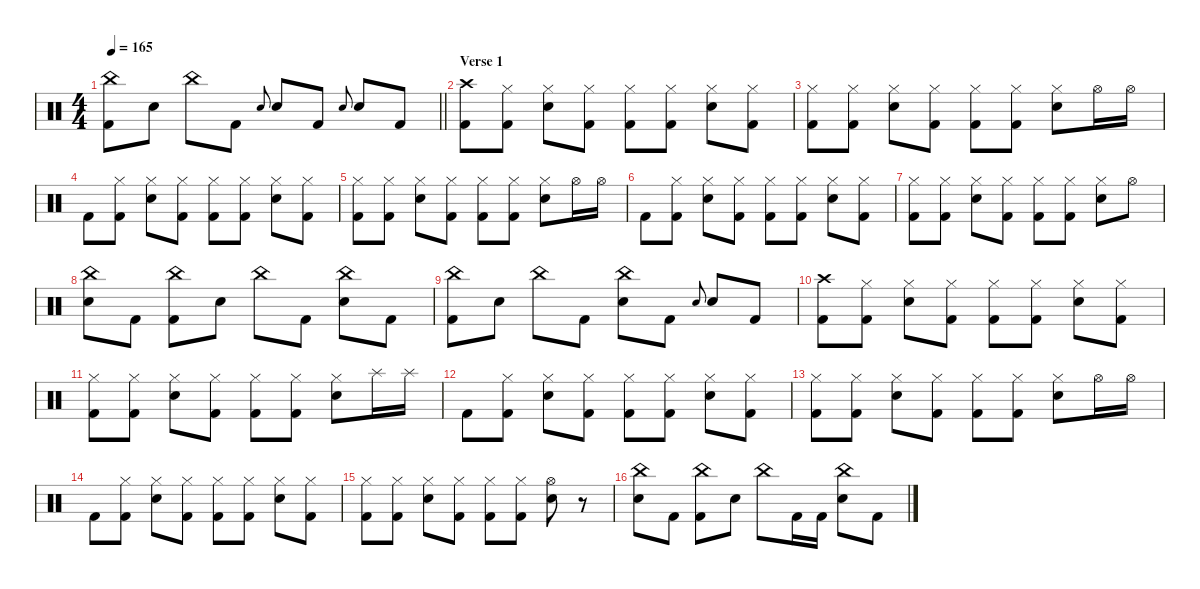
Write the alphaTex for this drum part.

\defaultSystemsLayout 4
\hideDynamics
\bracketExtendMode nobrackets
\singleTrackTrackNamePolicy hidden
\multiTrackTrackNamePolicy hidden
\firstSystemTrackNameMode fullname
\firstSystemTrackNameOrientation horizontal
\otherSystemsTrackNameOrientation horizontal
\track ("Percussions" "drm.") {instrument percussion}
\staff {score}
\articulation defaults
\ts (4 4)
\tempo 165
\clef neutral
\barLineRight lightlight
\ks c
("China (hit)" "Kick (hit) 2").8{dy f beam Down} "Snare (hit) 2".8{beam Down} "China (hit)".8{beam Down} "Kick (hit) 2".8{beam Down} "Electric Snare (hit)".8{gr onbeat dy mf beam Up} "Snare (hit) 2".8{dy f beam Up} "Kick (hit) 2".8{beam Up} "Electric Snare (hit)".8{gr onbeat dy mf beam Up} "Snare (hit) 2".8{dy f beam Up} "Kick (hit) 2".8{beam Up} |
\section ("" "Verse 1")
("Crash high (hit)" "Kick (hit) 2").8{beam Down} ("Hi-Hat (closed)" "Kick (hit) 2").8{beam Down} ("Hi-Hat (closed)" "Snare (hit) 2").8{beam Down} ("Hi-Hat (closed)" "Kick (hit) 2").8{beam Down} ("Hi-Hat (closed)" "Kick (hit) 2").8{beam Down} ("Hi-Hat (closed)" "Kick (hit) 2").8{beam Down} ("Hi-Hat (closed)" "Snare (hit) 2").8{beam Down} ("Hi-Hat (closed)" "Kick (hit) 2").8{beam Down} |
("Hi-Hat (closed)" "Kick (hit) 2").8{beam Down} ("Hi-Hat (closed)" "Kick (hit) 2").8{beam Down} ("Hi-Hat (closed)" "Snare (hit) 2").8{beam Down} ("Hi-Hat (closed)" "Kick (hit) 2").8{beam Down} ("Hi-Hat (closed)" "Kick (hit) 2").8{beam Down} ("Hi-Hat (closed)" "Kick (hit) 2").8{beam Down} ("Hi-Hat (closed)" "Snare (hit) 2").8{beam Down} "Hi-Hat (open)".16{beam Down} "Hi-Hat (open)".16{beam Down} |
"Kick (hit) 2".8{beam Down} ("Hi-Hat (closed)" "Kick (hit) 2").8{beam Down} ("Hi-Hat (closed)" "Snare (hit) 2").8{beam Down} ("Hi-Hat (closed)" "Kick (hit) 2").8{beam Down} ("Hi-Hat (closed)" "Kick (hit) 2").8{beam Down} ("Hi-Hat (closed)" "Kick (hit) 2").8{beam Down} ("Hi-Hat (closed)" "Snare (hit) 2").8{beam Down} ("Hi-Hat (closed)" "Kick (hit) 2").8{beam Down} |
("Hi-Hat (closed)" "Kick (hit) 2").8{beam Down} ("Hi-Hat (closed)" "Kick (hit) 2").8{beam Down} ("Hi-Hat (closed)" "Snare (hit) 2").8{beam Down} ("Hi-Hat (closed)" "Kick (hit) 2").8{beam Down} ("Hi-Hat (closed)" "Kick (hit) 2").8{beam Down} ("Hi-Hat (closed)" "Kick (hit) 2").8{beam Down} ("Hi-Hat (closed)" "Snare (hit) 2").8{beam Down} "Hi-Hat (open)".16{beam Down} "Hi-Hat (open)".16{beam Down} |
"Kick (hit) 2".8{beam Down} ("Hi-Hat (closed)" "Kick (hit) 2").8{beam Down} ("Hi-Hat (closed)" "Snare (hit) 2").8{beam Down} ("Hi-Hat (closed)" "Kick (hit) 2").8{beam Down} ("Hi-Hat (closed)" "Kick (hit) 2").8{beam Down} ("Hi-Hat (closed)" "Kick (hit) 2").8{beam Down} ("Hi-Hat (closed)" "Snare (hit) 2").8{beam Down} ("Hi-Hat (closed)" "Kick (hit) 2").8{beam Down} |
("Hi-Hat (closed)" "Kick (hit) 2").8{beam Down} ("Hi-Hat (closed)" "Kick (hit) 2").8{beam Down} ("Hi-Hat (closed)" "Snare (hit) 2").8{beam Down} ("Hi-Hat (closed)" "Kick (hit) 2").8{beam Down} ("Hi-Hat (closed)" "Kick (hit) 2").8{beam Down} ("Hi-Hat (closed)" "Kick (hit) 2").8{beam Down} ("Hi-Hat (closed)" "Snare (hit) 2").8{beam Down} "Hi-Hat (open)".8{beam Down} |
("China (hit)" "Snare (hit) 2").8{beam Down} "Kick (hit) 2".8{beam Down} ("China (hit)" "Kick (hit) 2").8{beam Down} "Snare (hit) 2".8{beam Down} "China (hit)".8{beam Down} "Kick (hit) 2".8{beam Down} ("China (hit)" "Snare (hit) 2").8{beam Down} "Kick (hit) 2".8{beam Down} |
("China (hit)" "Kick (hit) 2").8{beam Down} "Snare (hit) 2".8{beam Down} "China (hit)".8{beam Down} "Kick (hit) 2".8{beam Down} ("China (hit)" "Snare (hit) 2").8{beam Down} "Kick (hit) 2".8{beam Down} "Electric Snare (hit)".8{gr onbeat dy mf beam Up} "Snare (hit) 2".8{dy f beam Up} "Kick (hit) 2".8{beam Up} |
("Crash high (hit)" "Kick (hit) 2").8{beam Down} ("Hi-Hat (closed)" "Kick (hit) 2").8{beam Down} ("Hi-Hat (closed)" "Snare (hit) 2").8{beam Down} ("Hi-Hat (closed)" "Kick (hit) 2").8{beam Down} ("Hi-Hat (closed)" "Kick (hit) 2").8{beam Down} ("Hi-Hat (closed)" "Kick (hit) 2").8{beam Down} ("Hi-Hat (closed)" "Snare (hit) 2").8{beam Down} ("Hi-Hat (closed)" "Kick (hit) 2").8{beam Down} |
("Hi-Hat (closed)" "Kick (hit) 2").8{beam Down} ("Hi-Hat (closed)" "Kick (hit) 2").8{beam Down} ("Hi-Hat (closed)" "Snare (hit) 2").8{beam Down} ("Hi-Hat (closed)" "Kick (hit) 2").8{beam Down} ("Hi-Hat (closed)" "Kick (hit) 2").8{beam Down} ("Hi-Hat (closed)" "Kick (hit) 2").8{beam Down} ("Hi-Hat (closed)" "Snare (hit) 2").8{beam Down} "Splash (hit)".16{beam Down} "Splash (hit)".16{beam Down} |
"Kick (hit) 2".8{beam Down} ("Hi-Hat (closed)" "Kick (hit) 2").8{beam Down} ("Hi-Hat (closed)" "Snare (hit) 2").8{beam Down} ("Hi-Hat (closed)" "Kick (hit) 2").8{beam Down} ("Hi-Hat (closed)" "Kick (hit) 2").8{beam Down} ("Hi-Hat (closed)" "Kick (hit) 2").8{beam Down} ("Hi-Hat (closed)" "Snare (hit) 2").8{beam Down} ("Hi-Hat (closed)" "Kick (hit) 2").8{beam Down} |
("Hi-Hat (closed)" "Kick (hit) 2").8{beam Down} ("Hi-Hat (closed)" "Kick (hit) 2").8{beam Down} ("Hi-Hat (closed)" "Snare (hit) 2").8{beam Down} ("Hi-Hat (closed)" "Kick (hit) 2").8{beam Down} ("Hi-Hat (closed)" "Kick (hit) 2").8{beam Down} ("Hi-Hat (closed)" "Kick (hit) 2").8{beam Down} ("Hi-Hat (closed)" "Snare (hit) 2").8{beam Down} "Hi-Hat (open)".16{beam Down} "Hi-Hat (open)".16{beam Down} |
"Kick (hit) 2".8{beam Down} ("Hi-Hat (closed)" "Kick (hit) 2").8{beam Down} ("Hi-Hat (closed)" "Snare (hit) 2").8{beam Down} ("Hi-Hat (closed)" "Kick (hit) 2").8{beam Down} ("Hi-Hat (closed)" "Kick (hit) 2").8{beam Down} ("Hi-Hat (closed)" "Kick (hit) 2").8{beam Down} ("Hi-Hat (closed)" "Snare (hit) 2").8{beam Down} ("Hi-Hat (closed)" "Kick (hit) 2").8{beam Down} |
("Hi-Hat (closed)" "Kick (hit) 2").8{beam Down} ("Hi-Hat (closed)" "Kick (hit) 2").8{beam Down} ("Hi-Hat (closed)" "Snare (hit) 2").8{beam Down} ("Hi-Hat (closed)" "Kick (hit) 2").8{beam Down} ("Hi-Hat (closed)" "Kick (hit) 2").8{beam Down} ("Hi-Hat (closed)" "Kick (hit) 2").8{beam Down} ("Hi-Hat (open)" "Snare (hit) 2").8{beam Down} r.8{beam Down} |
("China (hit)" "Snare (hit) 2").8{beam Down} "Kick (hit) 2".8{beam Down} ("China (hit)" "Kick (hit) 2").8{beam Down} "Snare (hit) 2".8{beam Down} "China (hit)".8{beam Down} "Kick (hit) 2".16{beam Down} "Kick (hit) 2".16{beam Down} ("China (hit)" "Snare (hit) 2").8{beam Down} "Kick (hit) 2".8{beam Down}
